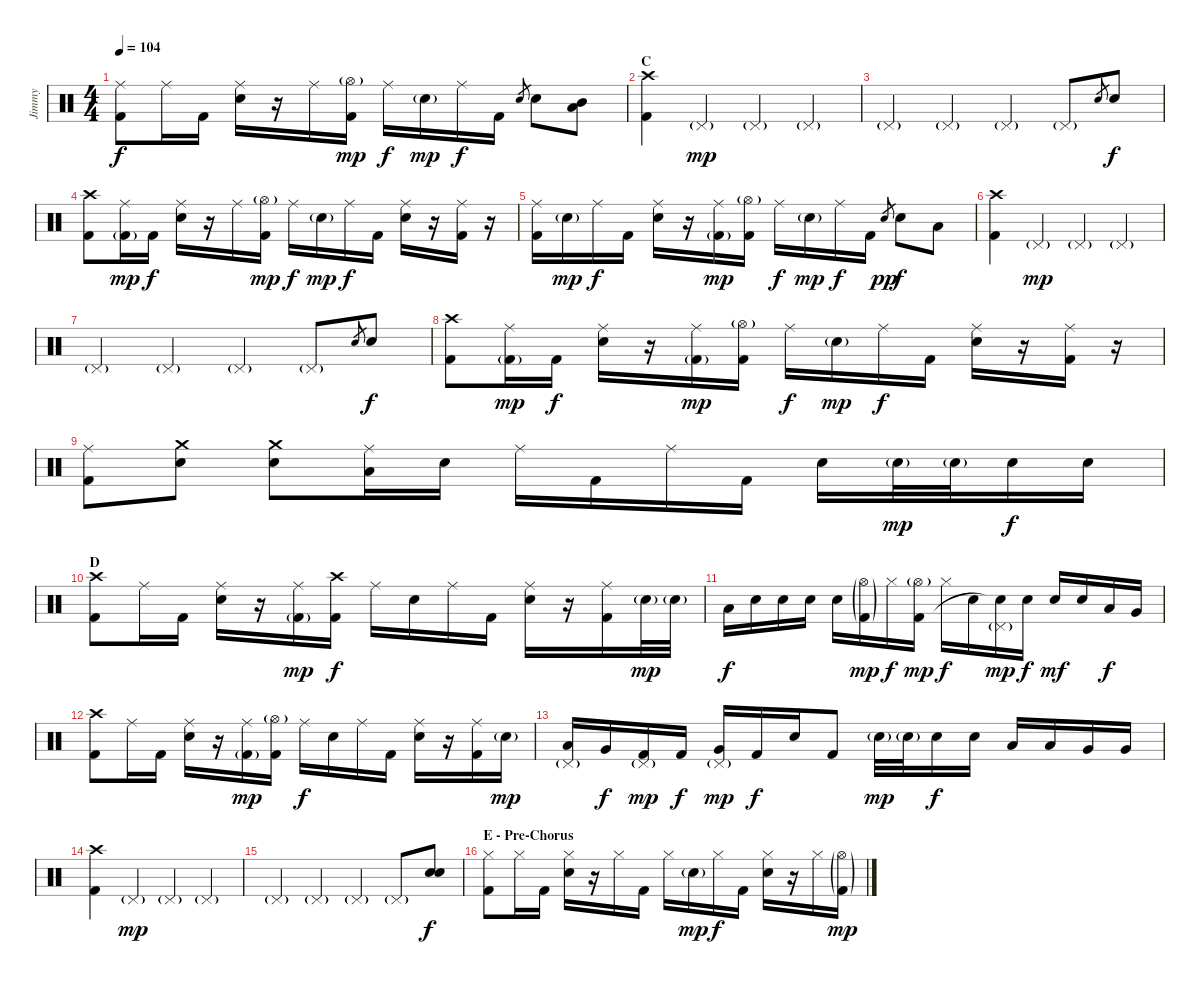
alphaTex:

\track ("Jimmy" "Jimmy") {instrument percussion}
\staff {score}
\articulation defaults
\ts (4 4)
\tempo 104
\clef neutral
\ks c
("Ride (middle)" "Kick (hit) 2").8{dy f} "Ride (middle)".16 "Kick (hit) 2".16 ("Ride (middle)" "Electric Snare (hit)").16 r.16 "Ride (middle)".16 ("Hi-Hat (open)"{g} "Kick (hit) 2").16{dy mp} "Ride (middle)".16{dy f} "Electric Snare (hit)"{g}.16{dy mp} "Ride (middle)".16{dy f} "Kick (hit) 2".16 "Electric Snare (hit)".8{gr} "Electric Snare (hit)".8 ("Mid Tom (hit)" "Low Tom (hit)").8 |
\section ("" "C")
("Crash high (hit)" "Kick (hit) 2").4 "Pedal Hi-Hat (hit)"{g}.4{dy mp} "Pedal Hi-Hat (hit)"{g}.4 "Pedal Hi-Hat (hit)"{g}.4 |
"Pedal Hi-Hat (hit)"{g}.4 "Pedal Hi-Hat (hit)"{g}.4 "Pedal Hi-Hat (hit)"{g}.4 "Pedal Hi-Hat (hit)"{g}.8 "Electric Snare (hit)".8{gr} "Electric Snare (hit)".8{dy f} |
("Crash high (hit)" "Kick (hit) 2").8 ("Ride (middle)" "Kick (hit) 2"{g}).16{dy mp} "Kick (hit) 2".16{dy f} ("Ride (middle)" "Electric Snare (hit)").16 r.16 "Ride (middle)".16 ("Hi-Hat (open)"{g} "Kick (hit) 2").16{dy mp} "Ride (middle)".16{dy f} "Electric Snare (hit)"{g}.16{dy mp} "Ride (middle)".16{dy f} "Kick (hit) 2".16 ("Ride (middle)" "Electric Snare (hit)").16 r.16 ("Ride (middle)" "Kick (hit) 2").16 r.16 |
("Ride (middle)" "Kick (hit) 2").16 "Electric Snare (hit)"{g}.16{dy mp} "Ride (middle)".16{dy f} "Kick (hit) 2".16 ("Ride (middle)" "Electric Snare (hit)").16 r.16 ("Ride (middle)" "Kick (hit) 2"{g}).16{dy mp} ("Hi-Hat (open)"{g} "Kick (hit) 2").16 "Ride (middle)".16{dy f} "Electric Snare (hit)"{g}.16{dy mp} "Ride (middle)".16{dy f} "Kick (hit) 2".16 "Electric Snare (hit)".8{gr dy pp} "Electric Snare (hit)".8{dy f} "Low Tom (hit)".8 |
("Crash high (hit)" "Kick (hit) 2").4 "Pedal Hi-Hat (hit)"{g}.4{dy mp} "Pedal Hi-Hat (hit)"{g}.4 "Pedal Hi-Hat (hit)"{g}.4 |
"Pedal Hi-Hat (hit)"{g}.4 "Pedal Hi-Hat (hit)"{g}.4 "Pedal Hi-Hat (hit)"{g}.4 "Pedal Hi-Hat (hit)"{g}.8 "Electric Snare (hit)".8{gr} "Electric Snare (hit)".8{dy f} |
("Crash high (hit)" "Kick (hit) 2").8 ("Ride (middle)" "Kick (hit) 2"{g}).16{dy mp} "Kick (hit) 2".16{dy f} ("Ride (middle)" "Electric Snare (hit)").16 r.16 ("Ride (middle)" "Kick (hit) 2"{g}).16{dy mp} ("Hi-Hat (open)"{g} "Kick (hit) 2").16 "Ride (middle)".16{dy f} "Electric Snare (hit)"{g}.16{dy mp} "Ride (middle)".16{dy f} "Kick (hit) 2".16 ("Ride (middle)" "Electric Snare (hit)").16 r.16 ("Ride (middle)" "Kick (hit) 2").16 r.16 |
("Ride (middle)" "Kick (hit) 2").8 ("Crash medium (hit)" "Electric Snare (hit)").8 ("Crash medium (hit)" "Electric Snare (hit)").8 ("Ride (middle)" "Low Tom (hit)").16 "Electric Snare (hit)".16 "Ride (middle)".16 "Kick (hit) 2".16 "Ride (middle)".16 "Kick (hit) 2".16 "Electric Snare (hit)".16 "Electric Snare (hit)"{g}.32{dy mp} "Electric Snare (hit)"{g}.32 "Electric Snare (hit)".16{dy f} "Electric Snare (hit)".16 |
\section ("" "D")
("Crash high (hit)" "Kick (hit) 2").8 "Ride (middle)".16 "Kick (hit) 2".16 ("Ride (middle)" "Electric Snare (hit)").16 r.16 ("Ride (middle)" "Kick (hit) 2"{g}).16{dy mp} ("Crash high (hit)" "Kick (hit) 2").16{dy f} "Ride (middle)".16 "Electric Snare (hit)".16 "Ride (middle)".16 "Kick (hit) 2".16 ("Ride (middle)" "Electric Snare (hit)").16 r.16 ("Ride (middle)" "Kick (hit) 2").16 "Electric Snare (hit)"{g}.32{dy mp} "Electric Snare (hit)"{g}.32 |
"Low Tom (hit)".16{dy f} "Electric Snare (hit)".16 "Electric Snare (hit)".16 "Electric Snare (hit)".16 "Electric Snare (hit)".16 ("Hi-Hat (open)"{g} "Kick (hit) 2"{g}).16{dy mp} "Hi-Hat (closed)".16{dy f} ("Hi-Hat (open)"{g} "Kick (hit) 2").16{dy mp} "Hi-Hat (closed)".16{dy f} "Electric Snare (hit)".16 ("Pedal Hi-Hat (hit)"{g} "Snare (hit)"{t}).16{dy mp} "Electric Snare (hit)".16{dy f} "Electric Snare (hit)".16{dy mf} "Electric Snare (hit)".16 "Low Tom (hit)".16{dy f} "Very Low Tom (hit)".16 |
("Crash high (hit)" "Kick (hit) 2").8 "Ride (middle)".16 "Kick (hit) 2".16 ("Ride (middle)" "Electric Snare (hit)").16 r.16 ("Ride (middle)" "Kick (hit) 2"{g}).16{dy mp} ("Hi-Hat (open)"{g} "Kick (hit) 2").16 "Ride (middle)".16{dy f} "Electric Snare (hit)".16 "Ride (middle)".16 "Kick (hit) 2".16 ("Ride (middle)" "Electric Snare (hit)").16 r.16 ("Ride (middle)" "Kick (hit) 2").16 "Electric Snare (hit)"{g}.16{dy mp} |
("Pedal Hi-Hat (hit)"{g} "Low Tom (hit)").16 "Very Low Tom (hit)".16{dy f} ("Pedal Hi-Hat (hit)"{g} "Kick (hit) 2").16{dy mp} "Kick (hit) 2".16{dy f} ("Pedal Hi-Hat (hit)"{g} "Very Low Tom (hit)").16{dy mp} "Kick (hit) 2".16{dy f} "Electric Snare (hit)".16 "Kick (hit) 2".8 "Electric Snare (hit)"{g}.32{dy mp} "Electric Snare (hit)"{g}.32 "Electric Snare (hit)".16{dy f} "Electric Snare (hit)".16 "Low Tom (hit)".16 "Low Tom (hit)".16 "Very Low Tom (hit)".16 "Very Low Tom (hit)".16 |
("Crash high (hit)" "Kick (hit) 2").4 "Pedal Hi-Hat (hit)"{g}.4{dy mp} "Pedal Hi-Hat (hit)"{g}.4 "Pedal Hi-Hat (hit)"{g}.4 |
"Pedal Hi-Hat (hit)"{g}.4 "Pedal Hi-Hat (hit)"{g}.4 "Pedal Hi-Hat (hit)"{g}.4 "Pedal Hi-Hat (hit)"{g}.8 ("Electric Snare (hit)" "Electric Snare (hit)").8{dy f} |
\section ("" "E - Pre-Chorus")
("Hi-Hat (closed)" "Kick (hit) 2").8 "Hi-Hat (closed)".16 "Kick (hit) 2".16 ("Hi-Hat (closed)" "Electric Snare (hit)").16 r.16 "Hi-Hat (closed)".16 "Kick (hit) 2".16 "Hi-Hat (closed)".16 "Electric Snare (hit)"{g}.16{dy mp} "Hi-Hat (closed)".16{dy f} "Kick (hit) 2".16 ("Hi-Hat (closed)" "Electric Snare (hit)").16 r.16 "Hi-Hat (closed)".16 ("Hi-Hat (open)"{g} "Kick (hit) 2"{g}).16{dy mp}
